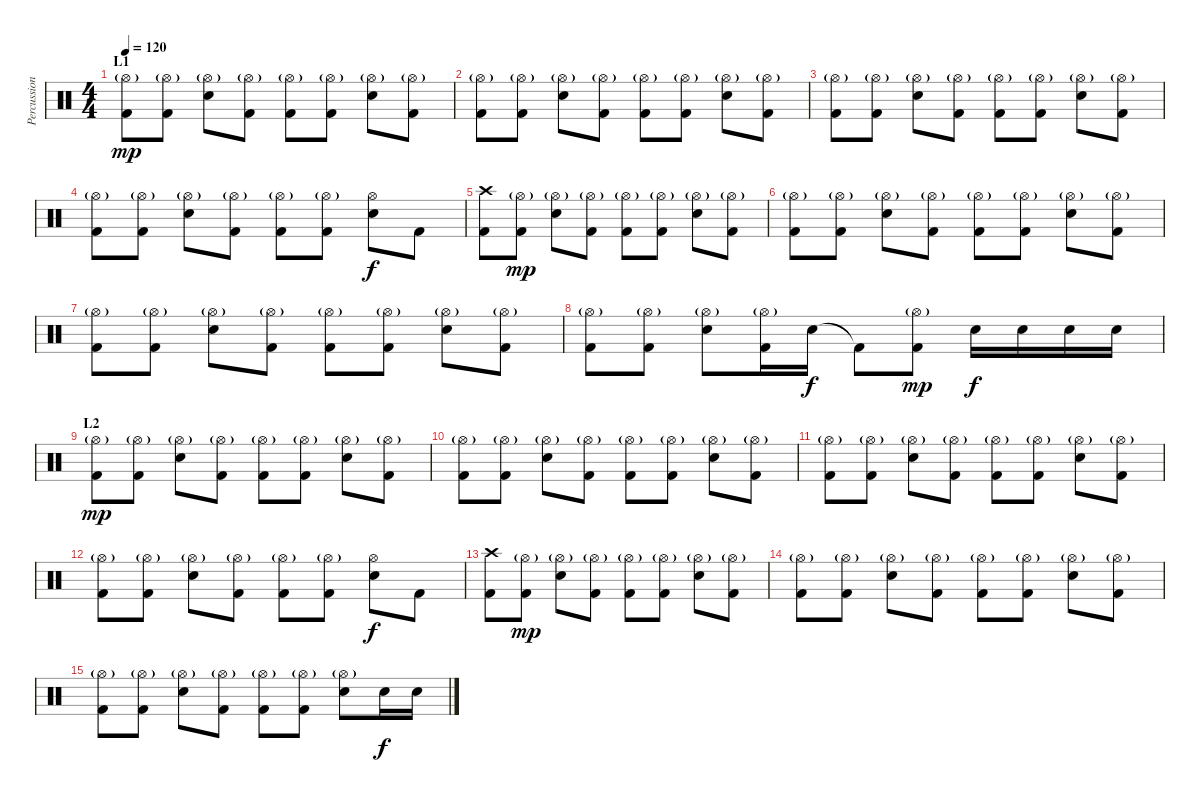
\track ("Percussion" "Percussion") {instrument percussion}
\staff {score}
\articulation defaults
\ts (4 4)
\section ("" "L1")
\tempo 120
\clef neutral
\ks c
("Hi-Hat (open)"{g} "Kick (hit) 2").8{dy mp} ("Hi-Hat (open)"{g} "Kick (hit) 2").8 ("Hi-Hat (open)"{g} "Snare (hit) 2").8 ("Hi-Hat (open)"{g} "Kick (hit) 2").8 ("Hi-Hat (open)"{g} "Kick (hit) 2").8 ("Hi-Hat (open)"{g} "Kick (hit) 2").8 ("Hi-Hat (open)"{g} "Snare (hit) 2").8 ("Hi-Hat (open)"{g} "Kick (hit) 2").8 |
("Hi-Hat (open)"{g} "Kick (hit) 2").8 ("Hi-Hat (open)"{g} "Kick (hit) 2").8 ("Hi-Hat (open)"{g} "Snare (hit) 2").8 ("Hi-Hat (open)"{g} "Kick (hit) 2").8 ("Hi-Hat (open)"{g} "Kick (hit) 2").8 ("Hi-Hat (open)"{g} "Kick (hit) 2").8 ("Hi-Hat (open)"{g} "Snare (hit) 2").8 ("Hi-Hat (open)"{g} "Kick (hit) 2").8 |
("Hi-Hat (open)"{g} "Kick (hit) 2").8 ("Hi-Hat (open)"{g} "Kick (hit) 2").8 ("Hi-Hat (open)"{g} "Snare (hit) 2").8 ("Hi-Hat (open)"{g} "Kick (hit) 2").8 ("Hi-Hat (open)"{g} "Kick (hit) 2").8 ("Hi-Hat (open)"{g} "Kick (hit) 2").8 ("Hi-Hat (open)"{g} "Snare (hit) 2").8 ("Hi-Hat (open)"{g} "Kick (hit) 2").8 |
("Hi-Hat (open)"{g} "Kick (hit) 2").8 ("Hi-Hat (open)"{g} "Kick (hit) 2").8 ("Hi-Hat (open)"{g} "Snare (hit) 2").8 ("Hi-Hat (open)"{g} "Kick (hit) 2").8 ("Hi-Hat (open)"{g} "Kick (hit) 2").8 ("Hi-Hat (open)"{g} "Kick (hit) 2").8 ("Hi-Hat (open)" "Snare (hit) 2").8{dy f} "Kick (hit) 2".8 |
("Crash high (hit)" "Kick (hit) 2").8 ("Hi-Hat (open)"{g} "Kick (hit) 2").8{dy mp} ("Hi-Hat (open)"{g} "Snare (hit) 2").8 ("Hi-Hat (open)"{g} "Kick (hit) 2").8 ("Hi-Hat (open)"{g} "Kick (hit) 2").8 ("Hi-Hat (open)"{g} "Kick (hit) 2").8 ("Hi-Hat (open)"{g} "Snare (hit) 2").8 ("Hi-Hat (open)"{g} "Kick (hit) 2").8 |
("Hi-Hat (open)"{g} "Kick (hit) 2").8 ("Hi-Hat (open)"{g} "Kick (hit) 2").8 ("Hi-Hat (open)"{g} "Snare (hit) 2").8 ("Hi-Hat (open)"{g} "Kick (hit) 2").8 ("Hi-Hat (open)"{g} "Kick (hit) 2").8 ("Hi-Hat (open)"{g} "Kick (hit) 2").8 ("Hi-Hat (open)"{g} "Snare (hit) 2").8 ("Hi-Hat (open)"{g} "Kick (hit) 2").8 |
("Hi-Hat (open)"{g} "Kick (hit) 2").8 ("Hi-Hat (open)"{g} "Kick (hit) 2").8 ("Hi-Hat (open)"{g} "Snare (hit) 2").8 ("Hi-Hat (open)"{g} "Kick (hit) 2").8 ("Hi-Hat (open)"{g} "Kick (hit) 2").8 ("Hi-Hat (open)"{g} "Kick (hit) 2").8 ("Hi-Hat (open)"{g} "Snare (hit) 2").8 ("Hi-Hat (open)"{g} "Kick (hit) 2").8 |
("Hi-Hat (open)"{g} "Kick (hit) 2").8 ("Hi-Hat (open)"{g} "Kick (hit) 2").8 ("Hi-Hat (open)"{g} "Snare (hit) 2").8 ("Hi-Hat (open)"{g} "Kick (hit) 2").16 "Snare (hit) 2".16{dy f} "Kick (hit) 2"{t}.8 ("Hi-Hat (open)"{g} "Kick (hit) 2").8{dy mp} "Snare (hit) 2".16{dy f} "Snare (hit) 2".16 "Snare (hit) 2".16 "Snare (hit) 2".16 |
\section ("" "L2")
("Hi-Hat (open)"{g} "Kick (hit) 2").8{dy mp} ("Hi-Hat (open)"{g} "Kick (hit) 2").8 ("Hi-Hat (open)"{g} "Snare (hit) 2").8 ("Hi-Hat (open)"{g} "Kick (hit) 2").8 ("Hi-Hat (open)"{g} "Kick (hit) 2").8 ("Hi-Hat (open)"{g} "Kick (hit) 2").8 ("Hi-Hat (open)"{g} "Snare (hit) 2").8 ("Hi-Hat (open)"{g} "Kick (hit) 2").8 |
("Hi-Hat (open)"{g} "Kick (hit) 2").8 ("Hi-Hat (open)"{g} "Kick (hit) 2").8 ("Hi-Hat (open)"{g} "Snare (hit) 2").8 ("Hi-Hat (open)"{g} "Kick (hit) 2").8 ("Hi-Hat (open)"{g} "Kick (hit) 2").8 ("Hi-Hat (open)"{g} "Kick (hit) 2").8 ("Hi-Hat (open)"{g} "Snare (hit) 2").8 ("Hi-Hat (open)"{g} "Kick (hit) 2").8 |
("Hi-Hat (open)"{g} "Kick (hit) 2").8 ("Hi-Hat (open)"{g} "Kick (hit) 2").8 ("Hi-Hat (open)"{g} "Snare (hit) 2").8 ("Hi-Hat (open)"{g} "Kick (hit) 2").8 ("Hi-Hat (open)"{g} "Kick (hit) 2").8 ("Hi-Hat (open)"{g} "Kick (hit) 2").8 ("Hi-Hat (open)"{g} "Snare (hit) 2").8 ("Hi-Hat (open)"{g} "Kick (hit) 2").8 |
("Hi-Hat (open)"{g} "Kick (hit) 2").8 ("Hi-Hat (open)"{g} "Kick (hit) 2").8 ("Hi-Hat (open)"{g} "Snare (hit) 2").8 ("Hi-Hat (open)"{g} "Kick (hit) 2").8 ("Hi-Hat (open)"{g} "Kick (hit) 2").8 ("Hi-Hat (open)"{g} "Kick (hit) 2").8 ("Hi-Hat (open)" "Snare (hit) 2").8{dy f} "Kick (hit) 2".8 |
("Crash high (hit)" "Kick (hit) 2").8 ("Hi-Hat (open)"{g} "Kick (hit) 2").8{dy mp} ("Hi-Hat (open)"{g} "Snare (hit) 2").8 ("Hi-Hat (open)"{g} "Kick (hit) 2").8 ("Hi-Hat (open)"{g} "Kick (hit) 2").8 ("Hi-Hat (open)"{g} "Kick (hit) 2").8 ("Hi-Hat (open)"{g} "Snare (hit) 2").8 ("Hi-Hat (open)"{g} "Kick (hit) 2").8 |
("Hi-Hat (open)"{g} "Kick (hit) 2").8 ("Hi-Hat (open)"{g} "Kick (hit) 2").8 ("Hi-Hat (open)"{g} "Snare (hit) 2").8 ("Hi-Hat (open)"{g} "Kick (hit) 2").8 ("Hi-Hat (open)"{g} "Kick (hit) 2").8 ("Hi-Hat (open)"{g} "Kick (hit) 2").8 ("Hi-Hat (open)"{g} "Snare (hit) 2").8 ("Hi-Hat (open)"{g} "Kick (hit) 2").8 |
("Hi-Hat (open)"{g} "Kick (hit) 2").8 ("Hi-Hat (open)"{g} "Kick (hit) 2").8 ("Hi-Hat (open)"{g} "Snare (hit) 2").8 ("Hi-Hat (open)"{g} "Kick (hit) 2").8 ("Hi-Hat (open)"{g} "Kick (hit) 2").8 ("Hi-Hat (open)"{g} "Kick (hit) 2").8 ("Hi-Hat (open)"{g} "Snare (hit) 2").8 "Snare (hit) 2".16{dy f} "Snare (hit) 2".16
